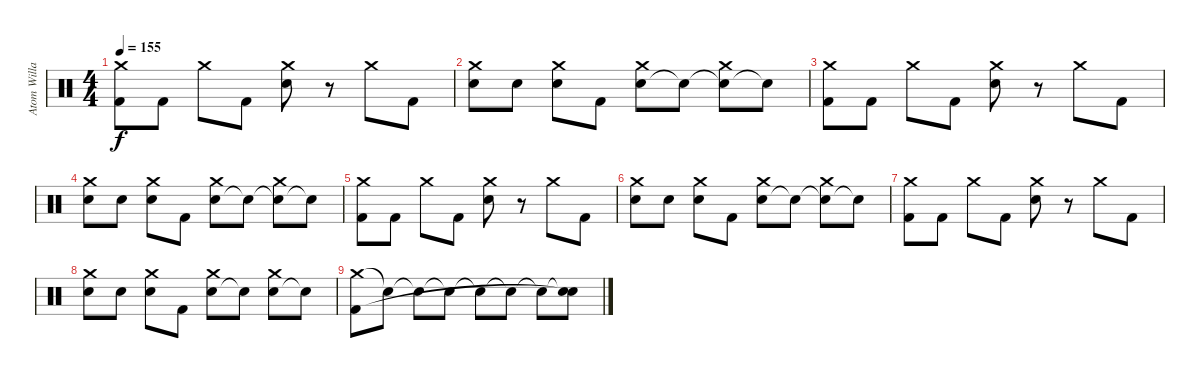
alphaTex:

\track ("Atom Willard - Drums" "Atom Willa") {instrument percussion}
\staff {score}
\articulation defaults
\ts (4 4)
\tempo 155
\clef neutral
\ks c
("Kick (hit) 2" "Crash medium (hit)").8{dy f} "Kick (hit) 2".8 "Crash medium (hit)".8 "Kick (hit) 2".8 ("Electric Snare (hit)" "Crash medium (hit)").8 r.8 "Crash medium (hit)".8 "Kick (hit) 2".8 |
("Snare (hit)" "Crash medium (hit)").8 "Electric Snare (hit)".8 ("Snare (hit)" "Crash medium (hit)").8 "Kick (hit) 2".8 ("Electric Snare (hit)" "Crash medium (hit)").8 "Snare (hit)"{t}.8 ("Snare (hit)"{t} "Crash medium (hit)").8 "Snare (hit)"{t}.8 |
("Kick (hit) 2" "Crash medium (hit)").8 "Kick (hit) 2".8 "Crash medium (hit)".8 "Kick (hit) 2".8 ("Electric Snare (hit)" "Crash medium (hit)").8 r.8 "Crash medium (hit)".8 "Kick (hit) 2".8 |
("Snare (hit)" "Crash medium (hit)").8 "Electric Snare (hit)".8 ("Snare (hit)" "Crash medium (hit)").8 "Kick (hit) 2".8 ("Electric Snare (hit)" "Crash medium (hit)").8 "Snare (hit)"{t}.8 ("Snare (hit)"{t} "Crash medium (hit)").8 "Snare (hit)"{t}.8 |
("Kick (hit) 2" "Crash medium (hit)").8 "Kick (hit) 2".8 "Crash medium (hit)".8 "Kick (hit) 2".8 ("Electric Snare (hit)" "Crash medium (hit)").8 r.8 "Crash medium (hit)".8 "Kick (hit) 2".8 |
("Snare (hit)" "Crash medium (hit)").8 "Electric Snare (hit)".8 ("Snare (hit)" "Crash medium (hit)").8 "Kick (hit) 2".8 ("Electric Snare (hit)" "Crash medium (hit)").8 "Snare (hit)"{t}.8 ("Snare (hit)"{t} "Crash medium (hit)").8 "Snare (hit)"{t}.8 |
("Kick (hit) 2" "Crash medium (hit)").8 "Kick (hit) 2".8 "Crash medium (hit)".8 "Kick (hit) 2".8 ("Electric Snare (hit)" "Crash medium (hit)").8 r.8 "Crash medium (hit)".8 "Kick (hit) 2".8 |
("Snare (hit)" "Crash medium (hit)").8 "Electric Snare (hit)".8 ("Snare (hit)" "Crash medium (hit)").8 "Kick (hit) 2".8 ("Electric Snare (hit)" "Crash medium (hit)").8 "Snare (hit)"{t}.8 ("Electric Snare (hit)" "Crash medium (hit)").8 "Snare (hit)"{t}.8 |
("Crash medium (hit)" "Kick (hit) 2").8 "Snare (hit)"{t}.8 "Snare (hit)"{t}.8 "Snare (hit)"{t}.8 "Snare (hit)"{t}.8 "Snare (hit)"{t}.8 "Snare (hit)"{t}.8 ("Snare (hit)"{t} "Snare (hit)"{t}).8
